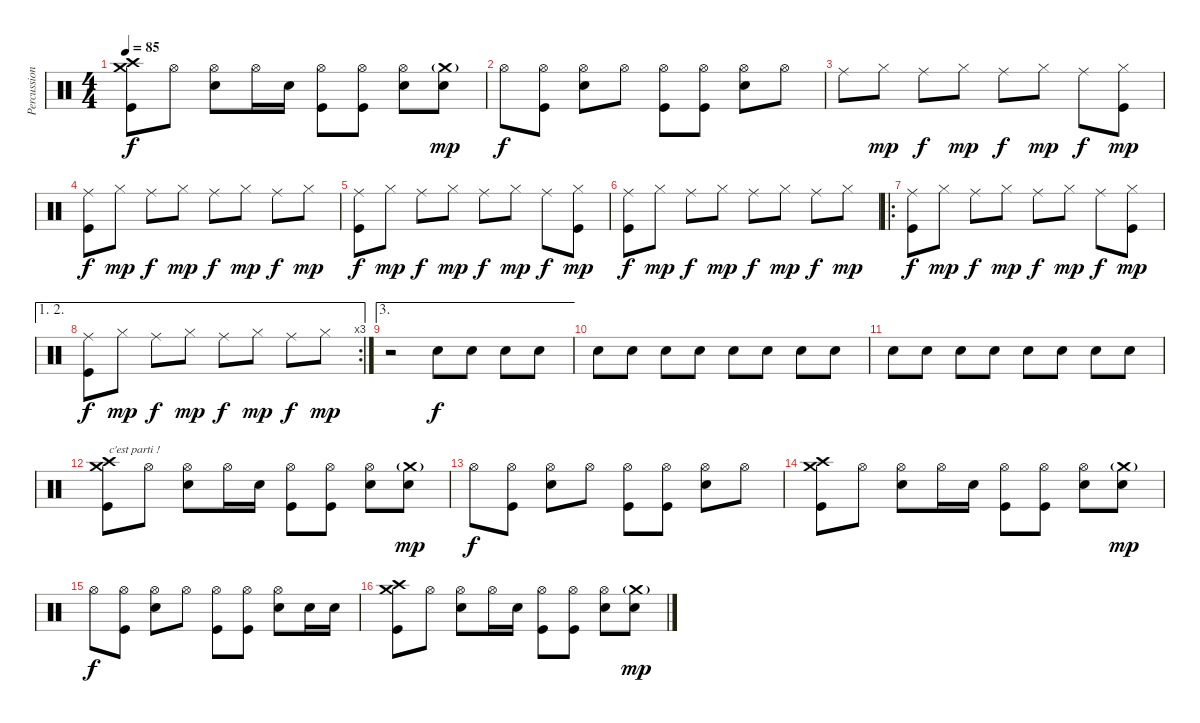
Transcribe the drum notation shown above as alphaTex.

\track ("Percussions" "Percussion") {instrument percussion}
\staff {score}
\articulation defaults
\ts (4 4)
\tempo 85
\clef neutral
\ks c
("Crash high (hit)" "Crash medium (hit)" "Kick (hit)").8{dy f} "Hi-Hat (open)".8 ("Hi-Hat (open)" "Electric Snare (hit)").8 "Hi-Hat (open)".16 "Electric Snare (hit)".16 ("Hi-Hat (open)" "Kick (hit)").8 ("Hi-Hat (open)" "Kick (hit)").8 ("Hi-Hat (open)" "Electric Snare (hit)").8 ("Crash medium (hit)"{g} "Snare (hit) 2").8{dy mp} |
"Hi-Hat (open)".8{dy f} ("Hi-Hat (open)" "Kick (hit)").8 ("Hi-Hat (open)" "Electric Snare (hit)").8 "Hi-Hat (open)".8 ("Hi-Hat (open)" "Kick (hit)").8 ("Hi-Hat (open)" "Kick (hit)").8 ("Hi-Hat (open)" "Electric Snare (hit)").8 "Hi-Hat (open)".8 |
"Ride (middle)".8{volume 8} "Hi-Hat (closed)".8{dy mp} "Ride (middle)".8{dy f} "Hi-Hat (closed)".8{dy mp} "Ride (middle)".8{dy f} "Hi-Hat (closed)".8{dy mp} "Ride (middle)".8{dy f} ("Hi-Hat (closed)" "Kick (hit)").8{dy mp} |
("Ride (middle)" "Kick (hit)").8{dy f} "Hi-Hat (closed)".8{dy mp} "Ride (middle)".8{dy f} "Hi-Hat (closed)".8{dy mp} "Ride (middle)".8{dy f} "Hi-Hat (closed)".8{dy mp} "Ride (middle)".8{dy f} "Hi-Hat (closed)".8{dy mp} |
("Ride (middle)" "Kick (hit)").8{dy f} "Hi-Hat (closed)".8{dy mp} "Ride (middle)".8{dy f} "Hi-Hat (closed)".8{dy mp} "Ride (middle)".8{dy f} "Hi-Hat (closed)".8{dy mp} "Ride (middle)".8{dy f} ("Hi-Hat (closed)" "Kick (hit)").8{dy mp} |
("Ride (middle)" "Kick (hit)").8{dy f} "Hi-Hat (closed)".8{dy mp} "Ride (middle)".8{dy f} "Hi-Hat (closed)".8{dy mp} "Ride (middle)".8{dy f} "Hi-Hat (closed)".8{dy mp} "Ride (middle)".8{dy f} "Hi-Hat (closed)".8{dy mp} |
\ro
("Ride (middle)" "Kick (hit)").8{dy f} "Hi-Hat (closed)".8{dy mp} "Ride (middle)".8{dy f} "Hi-Hat (closed)".8{dy mp} "Ride (middle)".8{dy f} "Hi-Hat (closed)".8{dy mp} "Ride (middle)".8{dy f} ("Hi-Hat (closed)" "Kick (hit)").8{dy mp} |
\ae (1 2)
\rc 3
("Ride (middle)" "Kick (hit)").8{dy f} "Hi-Hat (closed)".8{dy mp} "Ride (middle)".8{dy f} "Hi-Hat (closed)".8{dy mp} "Ride (middle)".8{dy f} "Hi-Hat (closed)".8{dy mp} "Ride (middle)".8{dy f} "Hi-Hat (closed)".8{dy mp} |
\ae 3
r.2{volume 4} "Snare (hit) 2".8{dy f volume 10} "Snare (hit) 2".8 "Snare (hit) 2".8 "Snare (hit) 2".8 |
"Snare (hit) 2".8 "Snare (hit) 2".8 "Snare (hit) 2".8 "Snare (hit) 2".8 "Snare (hit) 2".8 "Snare (hit) 2".8 "Snare (hit) 2".8 "Snare (hit) 2".8 |
"Snare (hit) 2".8 "Snare (hit) 2".8 "Snare (hit) 2".8 "Snare (hit) 2".8 "Snare (hit) 2".8 "Snare (hit) 2".8 "Snare (hit) 2".8 "Snare (hit) 2".8 |
("Crash high (hit)" "Crash medium (hit)" "Kick (hit)").8{txt "c'est parti !" volume 12} "Hi-Hat (open)".8 ("Hi-Hat (open)" "Electric Snare (hit)").8 "Hi-Hat (open)".16 "Electric Snare (hit)".16 ("Hi-Hat (open)" "Kick (hit)").8 ("Hi-Hat (open)" "Kick (hit)").8 ("Hi-Hat (open)" "Electric Snare (hit)").8 ("Crash medium (hit)"{g} "Snare (hit) 2").8{dy mp} |
"Hi-Hat (open)".8{dy f} ("Hi-Hat (open)" "Kick (hit)").8 ("Hi-Hat (open)" "Electric Snare (hit)").8 "Hi-Hat (open)".8 ("Hi-Hat (open)" "Kick (hit)").8 ("Hi-Hat (open)" "Kick (hit)").8 ("Hi-Hat (open)" "Electric Snare (hit)").8 "Hi-Hat (open)".8 |
("Crash high (hit)" "Crash medium (hit)" "Kick (hit)").8 "Hi-Hat (open)".8 ("Hi-Hat (open)" "Electric Snare (hit)").8 "Hi-Hat (open)".16 "Electric Snare (hit)".16 ("Hi-Hat (open)" "Kick (hit)").8 ("Hi-Hat (open)" "Kick (hit)").8 ("Hi-Hat (open)" "Electric Snare (hit)").8 ("Crash medium (hit)"{g} "Snare (hit) 2").8{dy mp} |
"Hi-Hat (open)".8{dy f} ("Hi-Hat (open)" "Kick (hit)").8 ("Hi-Hat (open)" "Electric Snare (hit)").8 "Hi-Hat (open)".8 ("Hi-Hat (open)" "Kick (hit)").8 ("Hi-Hat (open)" "Kick (hit)").8 ("Hi-Hat (open)" "Electric Snare (hit)").8 "Snare (hit) 2".16 "Snare (hit) 2".16 |
("Crash high (hit)" "Crash medium (hit)" "Kick (hit)").8 "Hi-Hat (open)".8 ("Hi-Hat (open)" "Electric Snare (hit)").8 "Hi-Hat (open)".16 "Electric Snare (hit)".16 ("Hi-Hat (open)" "Kick (hit)").8 ("Hi-Hat (open)" "Kick (hit)").8 ("Hi-Hat (open)" "Electric Snare (hit)").8 ("Crash medium (hit)"{g} "Snare (hit) 2").8{dy mp}
